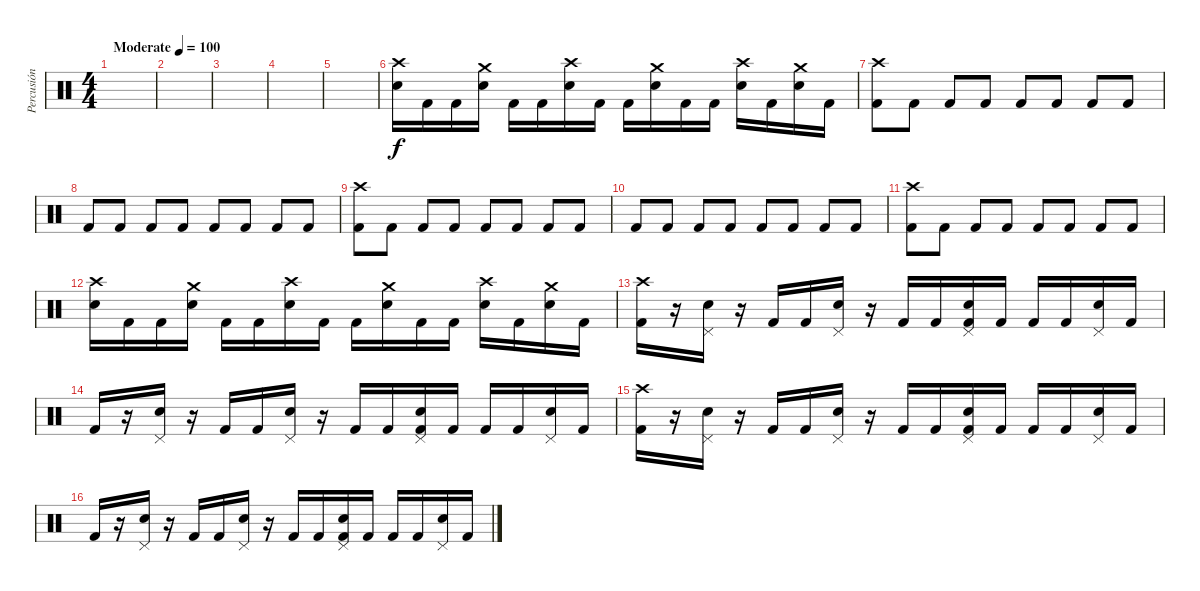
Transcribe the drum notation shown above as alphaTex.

\track ("Percusión" "Percusión") {instrument percussion}
\staff {score}
\articulation defaults
\ts (4 4)
\tempo (100 "Moderate")
\clef neutral
\ks c
|
|
|
|
|
("Crash high (hit)" "Electric Snare (hit)").16 "Kick (hit) 2".16 "Kick (hit) 2".16 ("Crash medium (hit)" "Electric Snare (hit)").16 "Kick (hit) 2".16 "Kick (hit) 2".16 ("Crash high (hit)" "Electric Snare (hit)").16 "Kick (hit) 2".16 "Kick (hit) 2".16 ("Crash medium (hit)" "Electric Snare (hit)").16 "Kick (hit) 2".16 "Kick (hit) 2".16 ("Crash high (hit)" "Electric Snare (hit)").16 "Kick (hit) 2".16 ("Crash medium (hit)" "Electric Snare (hit)").16 "Kick (hit) 2".16 |
("Crash high (hit)" "Kick (hit) 2").8 "Kick (hit) 2".8 "Kick (hit) 2".8 "Kick (hit) 2".8 "Kick (hit) 2".8 "Kick (hit) 2".8 "Kick (hit) 2".8 "Kick (hit) 2".8 |
"Kick (hit) 2".8 "Kick (hit) 2".8 "Kick (hit) 2".8 "Kick (hit) 2".8 "Kick (hit) 2".8 "Kick (hit) 2".8 "Kick (hit) 2".8 "Kick (hit) 2".8 |
("Crash high (hit)" "Kick (hit) 2").8 "Kick (hit) 2".8 "Kick (hit) 2".8 "Kick (hit) 2".8 "Kick (hit) 2".8 "Kick (hit) 2".8 "Kick (hit) 2".8 "Kick (hit) 2".8 |
"Kick (hit) 2".8 "Kick (hit) 2".8 "Kick (hit) 2".8 "Kick (hit) 2".8 "Kick (hit) 2".8 "Kick (hit) 2".8 "Kick (hit) 2".8 "Kick (hit) 2".8 |
("Crash high (hit)" "Kick (hit) 2").8 "Kick (hit) 2".8 "Kick (hit) 2".8 "Kick (hit) 2".8 "Kick (hit) 2".8 "Kick (hit) 2".8 "Kick (hit) 2".8 "Kick (hit) 2".8 |
("Crash high (hit)" "Electric Snare (hit)").16 "Kick (hit) 2".16 "Kick (hit) 2".16 ("Crash medium (hit)" "Electric Snare (hit)").16 "Kick (hit) 2".16 "Kick (hit) 2".16 ("Crash high (hit)" "Electric Snare (hit)").16 "Kick (hit) 2".16 "Kick (hit) 2".16 ("Crash medium (hit)" "Electric Snare (hit)").16 "Kick (hit) 2".16 "Kick (hit) 2".16 ("Crash high (hit)" "Electric Snare (hit)").16 "Kick (hit) 2".16 ("Crash medium (hit)" "Electric Snare (hit)").16 "Kick (hit) 2".16 |
("Crash high (hit)" "Kick (hit) 2").16 r.16 ("Pedal Hi-Hat (hit)" "Electric Snare (hit)").16 r.16 "Kick (hit) 2".16 "Kick (hit) 2".16 ("Pedal Hi-Hat (hit)" "Electric Snare (hit)").16 r.16 "Kick (hit) 2".16 "Kick (hit) 2".16 ("Pedal Hi-Hat (hit)" "Electric Snare (hit)" "Kick (hit) 2").16 "Kick (hit) 2".16 "Kick (hit) 2".16 "Kick (hit) 2".16 ("Pedal Hi-Hat (hit)" "Electric Snare (hit)").16 "Kick (hit) 2".16 |
"Kick (hit) 2".16 r.16 ("Pedal Hi-Hat (hit)" "Electric Snare (hit)").16 r.16 "Kick (hit) 2".16 "Kick (hit) 2".16 ("Pedal Hi-Hat (hit)" "Electric Snare (hit)").16 r.16 "Kick (hit) 2".16 "Kick (hit) 2".16 ("Pedal Hi-Hat (hit)" "Electric Snare (hit)" "Kick (hit) 2").16 "Kick (hit) 2".16 "Kick (hit) 2".16 "Kick (hit) 2".16 ("Pedal Hi-Hat (hit)" "Electric Snare (hit)").16 "Kick (hit) 2".16 |
("Crash high (hit)" "Kick (hit) 2").16 r.16 ("Pedal Hi-Hat (hit)" "Electric Snare (hit)").16 r.16 "Kick (hit) 2".16 "Kick (hit) 2".16 ("Pedal Hi-Hat (hit)" "Electric Snare (hit)").16 r.16 "Kick (hit) 2".16 "Kick (hit) 2".16 ("Pedal Hi-Hat (hit)" "Electric Snare (hit)" "Kick (hit) 2").16 "Kick (hit) 2".16 "Kick (hit) 2".16 "Kick (hit) 2".16 ("Pedal Hi-Hat (hit)" "Electric Snare (hit)").16 "Kick (hit) 2".16 |
"Kick (hit) 2".16 r.16 ("Pedal Hi-Hat (hit)" "Electric Snare (hit)").16 r.16 "Kick (hit) 2".16 "Kick (hit) 2".16 ("Pedal Hi-Hat (hit)" "Electric Snare (hit)").16 r.16 "Kick (hit) 2".16 "Kick (hit) 2".16 ("Pedal Hi-Hat (hit)" "Electric Snare (hit)" "Kick (hit) 2").16 "Kick (hit) 2".16 "Kick (hit) 2".16 "Kick (hit) 2".16 ("Pedal Hi-Hat (hit)" "Electric Snare (hit)").16 "Kick (hit) 2".16
